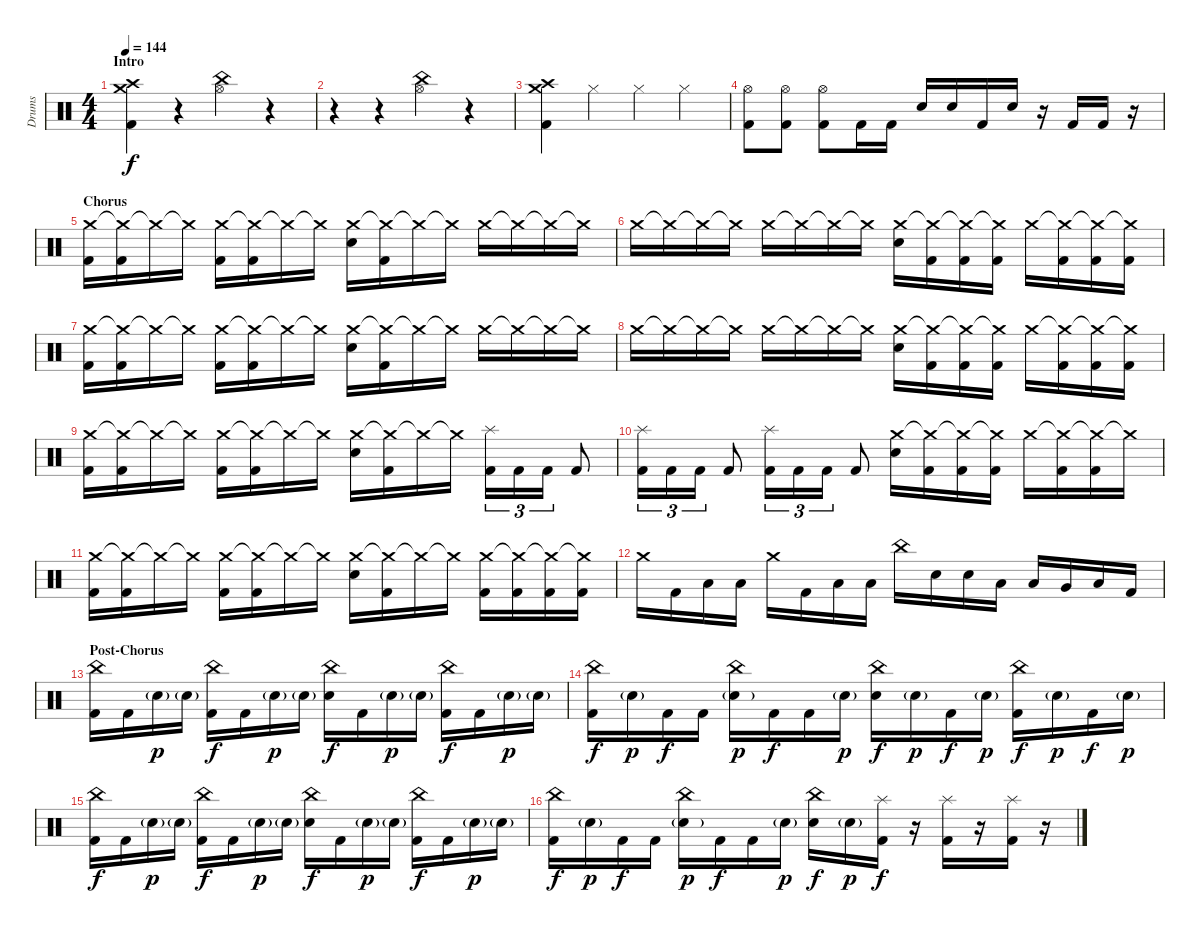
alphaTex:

\track ("Drums" "Drums") {instrument percussion}
\staff {score}
\articulation defaults
\ts (4 4)
\section ("" "Intro")
\tempo 144
\clef neutral
\ks c
("Crash medium (hit)" "Crash high (hit)" "Kick (hit) 2").4{dy f} r.4 ("China (hit)" "Hi-Hat (open)").4 r.4 |
r.4 r.4 ("China (hit)" "Hi-Hat (open)").4 r.4 |
("Crash medium (hit)" "Crash high (hit)" "Kick (hit) 2").4 "Hi-Hat (closed)".4 "Hi-Hat (closed)".4 "Hi-Hat (closed)".4 |
("Hi-Hat (open)" "Kick (hit) 2").8 ("Hi-Hat (open)" "Kick (hit) 2").8 ("Hi-Hat (open)" "Kick (hit) 2").8 "Kick (hit) 2".16 "Kick (hit) 2".16 "Electric Snare (hit)".16 "Electric Snare (hit)".16 "Kick (hit) 2".16 "Electric Snare (hit)".16 r.16 "Kick (hit) 2".16 "Kick (hit) 2".16 r.16 |
\section ("" "Chorus")
("Crash medium (hit)" "Kick (hit) 2").16 ("Crash medium (hit)"{t} "Kick (hit) 2").16 "Crash medium (hit)"{t}.16 "Crash medium (hit)"{t}.16 ("Crash medium (hit)" "Kick (hit) 2").16 ("Crash medium (hit)"{t} "Kick (hit) 2").16 "Crash medium (hit)"{t}.16 "Crash medium (hit)"{t}.16 ("Crash medium (hit)" "Electric Snare (hit)").16 ("Crash medium (hit)"{t} "Kick (hit) 2").16 "Crash medium (hit)"{t}.16 "Crash medium (hit)"{t}.16 "Crash medium (hit)".16 "Crash medium (hit)"{t}.16 "Crash medium (hit)"{t}.16 "Crash medium (hit)"{t}.16 |
"Crash medium (hit)".16 "Crash medium (hit)"{t}.16 "Crash medium (hit)"{t}.16 "Crash medium (hit)"{t}.16 "Crash medium (hit)".16 "Crash medium (hit)"{t}.16 "Crash medium (hit)"{t}.16 "Crash medium (hit)"{t}.16 ("Crash medium (hit)" "Electric Snare (hit)").16 ("Crash medium (hit)"{t} "Kick (hit) 2").16 ("Crash medium (hit)"{t} "Kick (hit) 2").16 ("Crash medium (hit)"{t} "Kick (hit) 2").16 "Crash medium (hit)".16 ("Crash medium (hit)"{t} "Kick (hit) 2").16 ("Crash medium (hit)"{t} "Kick (hit) 2").16 ("Crash medium (hit)"{t} "Kick (hit) 2").16 |
("Crash medium (hit)" "Kick (hit) 2").16 ("Crash medium (hit)"{t} "Kick (hit) 2").16 "Crash medium (hit)"{t}.16 "Crash medium (hit)"{t}.16 ("Crash medium (hit)" "Kick (hit) 2").16 ("Crash medium (hit)"{t} "Kick (hit) 2").16 "Crash medium (hit)"{t}.16 "Crash medium (hit)"{t}.16 ("Crash medium (hit)" "Electric Snare (hit)").16 ("Crash medium (hit)"{t} "Kick (hit) 2").16 "Crash medium (hit)"{t}.16 "Crash medium (hit)"{t}.16 "Crash medium (hit)".16 "Crash medium (hit)"{t}.16 "Crash medium (hit)"{t}.16 "Crash medium (hit)"{t}.16 |
"Crash medium (hit)".16 "Crash medium (hit)"{t}.16 "Crash medium (hit)"{t}.16 "Crash medium (hit)"{t}.16 "Crash medium (hit)".16 "Crash medium (hit)"{t}.16 "Crash medium (hit)"{t}.16 "Crash medium (hit)"{t}.16 ("Crash medium (hit)" "Electric Snare (hit)").16 ("Crash medium (hit)"{t} "Kick (hit) 2").16 ("Crash medium (hit)"{t} "Kick (hit) 2").16 ("Crash medium (hit)"{t} "Kick (hit) 2").16 "Crash medium (hit)".16 ("Crash medium (hit)"{t} "Kick (hit) 2").16 ("Crash medium (hit)"{t} "Kick (hit) 2").16 ("Crash medium (hit)"{t} "Kick (hit) 2").16 |
("Crash medium (hit)" "Kick (hit) 2").16 ("Crash medium (hit)"{t} "Kick (hit) 2").16 "Crash medium (hit)"{t}.16 "Crash medium (hit)"{t}.16 ("Crash medium (hit)" "Kick (hit) 2").16 ("Crash medium (hit)"{t} "Kick (hit) 2").16 "Crash medium (hit)"{t}.16 "Crash medium (hit)"{t}.16 ("Crash medium (hit)" "Electric Snare (hit)").16 ("Crash medium (hit)"{t} "Kick (hit) 2").16 "Crash medium (hit)"{t}.16 "Crash medium (hit)"{t}.16 ("Splash (hit)" "Kick (hit) 2").16{tu (3 2)} "Kick (hit) 2".16{tu (3 2)} "Kick (hit) 2".16{tu (3 2)} "Kick (hit) 2".8 |
("Splash (hit)" "Kick (hit) 2").16{tu (3 2)} "Kick (hit) 2".16{tu (3 2)} "Kick (hit) 2".16{tu (3 2)} "Kick (hit) 2".8 ("Splash (hit)" "Kick (hit) 2").16{tu (3 2)} "Kick (hit) 2".16{tu (3 2)} "Kick (hit) 2".16{tu (3 2)} "Kick (hit) 2".8 ("Crash medium (hit)" "Electric Snare (hit)").16 ("Crash medium (hit)"{t} "Kick (hit) 2").16 ("Crash medium (hit)"{t} "Kick (hit) 2").16 ("Crash medium (hit)"{t} "Kick (hit) 2").16 "Crash medium (hit)".16 ("Crash medium (hit)"{t} "Kick (hit) 2").16 ("Crash medium (hit)"{t} "Kick (hit) 2").16 "Crash medium (hit)"{t}.16 |
("Crash medium (hit)" "Kick (hit) 2").16 ("Crash medium (hit)"{t} "Kick (hit) 2").16 "Crash medium (hit)"{t}.16 "Crash medium (hit)"{t}.16 ("Crash medium (hit)" "Kick (hit) 2").16 ("Crash medium (hit)"{t} "Kick (hit) 2").16 "Crash medium (hit)"{t}.16 "Crash medium (hit)"{t}.16 ("Crash medium (hit)" "Electric Snare (hit)").16 ("Crash medium (hit)"{t} "Kick (hit) 2").16 "Crash medium (hit)"{t}.16 "Crash medium (hit)"{t}.16 ("Crash medium (hit)" "Kick (hit) 2").16 ("Crash medium (hit)"{t} "Kick (hit) 2").16 ("Crash medium (hit)"{t} "Kick (hit) 2").16 ("Crash medium (hit)"{t} "Kick (hit) 2").16 |
"Crash medium (hit)".16 "Kick (hit) 2".16 "Low Tom (hit)".16 "Low Tom (hit)".16 "Crash medium (hit)".16 "Kick (hit) 2".16 "Low Tom (hit)".16 "Low Tom (hit)".16 "China (hit)".16 "Electric Snare (hit)".16 "Electric Snare (hit)".16 "Low Tom (hit)".16 "Low Tom (hit)".16 "Very Low Tom (hit)".16 "Low Floor Tom (hit)".16 "Kick (hit) 2".16 |
\section ("" "Post-Chorus")
("China (hit)" "Kick (hit) 2").16 "Kick (hit) 2".16 "Snare (hit) 2"{g}.16{dy p} "Snare (hit) 2"{g}.16 ("China (hit)" "Kick (hit) 2").16{dy f} "Kick (hit) 2".16 "Snare (hit) 2"{g}.16{dy p} "Snare (hit) 2"{g}.16 ("China (hit)" "Electric Snare (hit)").16{dy f} "Kick (hit) 2".16 "Snare (hit) 2"{g}.16{dy p} "Snare (hit) 2"{g}.16 ("China (hit)" "Kick (hit) 2").16{dy f} "Kick (hit) 2".16 "Snare (hit) 2"{g}.16{dy p} "Snare (hit) 2"{g}.16 |
("China (hit)" "Kick (hit) 2").16{dy f} "Snare (hit) 2"{g}.16{dy p} "Kick (hit) 2".16{dy f} "Kick (hit) 2".16 ("China (hit)" "Snare (hit) 2"{g}).16{dy p} "Kick (hit) 2".16{dy f} "Kick (hit) 2".16 "Snare (hit) 2"{g}.16{dy p} ("China (hit)" "Electric Snare (hit)").16{dy f} "Snare (hit) 2"{g}.16{dy p} "Kick (hit) 2".16{dy f} "Snare (hit) 2"{g}.16{dy p} ("China (hit)" "Kick (hit) 2").16{dy f} "Snare (hit) 2"{g}.16{dy p} "Kick (hit) 2".16{dy f} "Snare (hit) 2"{g}.16{dy p} |
("China (hit)" "Kick (hit) 2").16{dy f} "Kick (hit) 2".16 "Snare (hit) 2"{g}.16{dy p} "Snare (hit) 2"{g}.16 ("China (hit)" "Kick (hit) 2").16{dy f} "Kick (hit) 2".16 "Snare (hit) 2"{g}.16{dy p} "Snare (hit) 2"{g}.16 ("China (hit)" "Electric Snare (hit)").16{dy f} "Kick (hit) 2".16 "Snare (hit) 2"{g}.16{dy p} "Snare (hit) 2"{g}.16 ("China (hit)" "Kick (hit) 2").16{dy f} "Kick (hit) 2".16 "Snare (hit) 2"{g}.16{dy p} "Snare (hit) 2"{g}.16 |
("China (hit)" "Kick (hit) 2").16{dy f} "Snare (hit) 2"{g}.16{dy p} "Kick (hit) 2".16{dy f} "Kick (hit) 2".16 ("China (hit)" "Snare (hit) 2"{g}).16{dy p} "Kick (hit) 2".16{dy f} "Kick (hit) 2".16 "Snare (hit) 2"{g}.16{dy p} ("China (hit)" "Electric Snare (hit)").16{dy f} "Snare (hit) 2"{g}.16{dy p} ("Splash (hit)" "Kick (hit) 2").16{dy f} r.16 ("Splash (hit)" "Kick (hit) 2").16 r.16 ("Splash (hit)" "Kick (hit) 2").16 r.16
